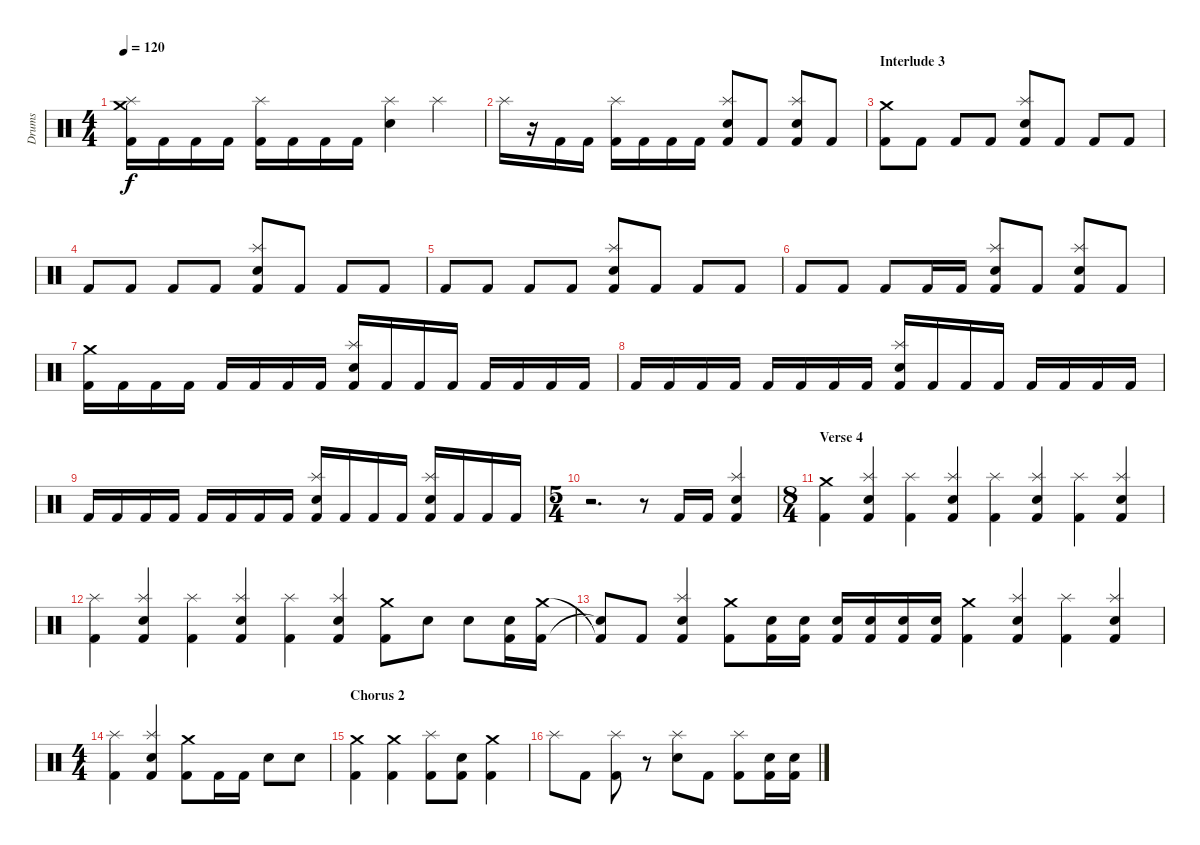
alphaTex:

\track ("Drums" "Drums") {instrument percussion}
\staff {score}
\articulation defaults
\ts (4 4)
\tempo 120
\clef neutral
\ks c
("Kick (hit) 2" "Crash medium (hit)" "Splash (hit)").16{dy f} "Kick (hit) 2".16 "Kick (hit) 2".16 "Kick (hit) 2".16 ("Kick (hit) 2" "Splash (hit)").16 "Kick (hit) 2".16 "Kick (hit) 2".16 "Kick (hit) 2".16 ("Snare (hit) 2" "Splash (hit)").4 "Splash (hit)".4 |
"Splash (hit)".16 r.16 "Kick (hit) 2".16 "Kick (hit) 2".16 ("Kick (hit) 2" "Splash (hit)").16 "Kick (hit) 2".16 "Kick (hit) 2".16 "Kick (hit) 2".16 ("Kick (hit) 2" "Snare (hit) 2" "Splash (hit)").8 "Kick (hit) 2".8 ("Kick (hit) 2" "Snare (hit) 2" "Splash (hit)").8 "Kick (hit) 2".8 |
\section ("" "Interlude 3")
("Kick (hit) 2" "Crash medium (hit)").8 "Kick (hit) 2".8 "Kick (hit) 2".8 "Kick (hit) 2".8 ("Kick (hit) 2" "Splash (hit)" "Snare (hit) 2").8 "Kick (hit) 2".8 "Kick (hit) 2".8 "Kick (hit) 2".8 |
"Kick (hit) 2".8 "Kick (hit) 2".8 "Kick (hit) 2".8 "Kick (hit) 2".8 ("Kick (hit) 2" "Splash (hit)" "Snare (hit) 2").8 "Kick (hit) 2".8 "Kick (hit) 2".8 "Kick (hit) 2".8 |
"Kick (hit) 2".8 "Kick (hit) 2".8 "Kick (hit) 2".8 "Kick (hit) 2".8 ("Kick (hit) 2" "Splash (hit)" "Snare (hit) 2").8 "Kick (hit) 2".8 "Kick (hit) 2".8 "Kick (hit) 2".8 |
"Kick (hit) 2".8 "Kick (hit) 2".8 "Kick (hit) 2".8 "Kick (hit) 2".16 "Kick (hit) 2".16 ("Kick (hit) 2" "Splash (hit)" "Snare (hit) 2").8 "Kick (hit) 2".8 ("Kick (hit) 2" "Splash (hit)" "Snare (hit) 2").8 "Kick (hit) 2".8 |
("Kick (hit) 2" "Crash medium (hit)").16 "Kick (hit) 2".16 "Kick (hit) 2".16 "Kick (hit) 2".16 "Kick (hit) 2".16 "Kick (hit) 2".16 "Kick (hit) 2".16 "Kick (hit) 2".16 ("Kick (hit) 2" "Snare (hit) 2" "Splash (hit)").16 "Kick (hit) 2".16 "Kick (hit) 2".16 "Kick (hit) 2".16 "Kick (hit) 2".16 "Kick (hit) 2".16 "Kick (hit) 2".16 "Kick (hit) 2".16 |
"Kick (hit) 2".16 "Kick (hit) 2".16 "Kick (hit) 2".16 "Kick (hit) 2".16 "Kick (hit) 2".16 "Kick (hit) 2".16 "Kick (hit) 2".16 "Kick (hit) 2".16 ("Kick (hit) 2" "Snare (hit) 2" "Splash (hit)").16 "Kick (hit) 2".16 "Kick (hit) 2".16 "Kick (hit) 2".16 "Kick (hit) 2".16 "Kick (hit) 2".16 "Kick (hit) 2".16 "Kick (hit) 2".16 |
"Kick (hit) 2".16 "Kick (hit) 2".16 "Kick (hit) 2".16 "Kick (hit) 2".16 "Kick (hit) 2".16 "Kick (hit) 2".16 "Kick (hit) 2".16 "Kick (hit) 2".16 ("Kick (hit) 2" "Snare (hit) 2" "Splash (hit)").16 "Kick (hit) 2".16 "Kick (hit) 2".16 "Kick (hit) 2".16 ("Kick (hit) 2" "Snare (hit) 2" "Splash (hit)").16 "Kick (hit) 2".16 "Kick (hit) 2".16 "Kick (hit) 2".16 |
\ts (5 4)
r.2{d} r.8 "Kick (hit) 2".16 "Kick (hit) 2".16 ("Snare (hit) 2" "Splash (hit)" "Kick (hit) 2").4 |
\ts (8 4)
\section ("" "Verse 4")
("Kick (hit) 2" "Crash medium (hit)").4 ("Snare (hit) 2" "Kick (hit) 2" "Splash (hit)").4 ("Kick (hit) 2" "Splash (hit)").4 ("Snare (hit) 2" "Kick (hit) 2" "Splash (hit)").4 ("Kick (hit) 2" "Splash (hit)").4 ("Snare (hit) 2" "Splash (hit)" "Kick (hit) 2").4 ("Splash (hit)" "Kick (hit) 2").4 ("Snare (hit) 2" "Splash (hit)" "Kick (hit) 2").4 |
("Splash (hit)" "Kick (hit) 2").4 ("Snare (hit) 2" "Splash (hit)" "Kick (hit) 2").4 ("Splash (hit)" "Kick (hit) 2").4 ("Snare (hit) 2" "Splash (hit)" "Kick (hit) 2").4 ("Splash (hit)" "Kick (hit) 2").4 ("Snare (hit) 2" "Splash (hit)" "Kick (hit) 2").4 ("Crash medium (hit)" "Kick (hit) 2").8 "Snare (hit) 2".8 "Snare (hit) 2".8 ("Snare (hit) 2" "Kick (hit) 2").16 ("Kick (hit) 2" "Crash medium (hit)").16 |
("Snare (hit)"{t} "Kick (hit) 2"{t}).8 "Kick (hit) 2".8 ("Snare (hit) 2" "Splash (hit)" "Kick (hit) 2").4 ("Crash medium (hit)" "Kick (hit) 2").8 ("Snare (hit) 2" "Kick (hit) 2").16 ("Snare (hit) 2" "Kick (hit) 2").16 ("Snare (hit) 2" "Kick (hit) 2").16 ("Snare (hit) 2" "Kick (hit) 2").16 ("Snare (hit) 2" "Kick (hit) 2").16 ("Snare (hit) 2" "Kick (hit) 2").16 ("Crash medium (hit)" "Kick (hit) 2").4 ("Snare (hit) 2" "Splash (hit)" "Kick (hit) 2").4 ("Splash (hit)" "Kick (hit) 2").4 ("Snare (hit) 2" "Splash (hit)" "Kick (hit) 2").4 |
\ts (4 4)
("Splash (hit)" "Kick (hit) 2").4 ("Snare (hit) 2" "Splash (hit)" "Kick (hit) 2").4 ("Crash medium (hit)" "Kick (hit) 2").8 "Kick (hit) 2".16 "Kick (hit) 2".16 "Snare (hit) 2".8 "Snare (hit) 2".8 |
\section ("" "Chorus 2")
("Crash medium (hit)" "Kick (hit) 2").4 ("Crash medium (hit)" "Kick (hit) 2").4 ("Splash (hit)" "Kick (hit) 2").8 ("Snare (hit) 2" "Kick (hit) 2").8 ("Crash medium (hit)" "Kick (hit) 2").4 |
"Splash (hit)".8 "Kick (hit) 2".8 ("Splash (hit)" "Kick (hit) 2").8 r.8 ("Snare (hit) 2" "Splash (hit)").8 "Kick (hit) 2".8 ("Splash (hit)" "Kick (hit) 2").8 ("Snare (hit) 2" "Kick (hit) 2").16 ("Snare (hit) 2" "Kick (hit) 2").16
